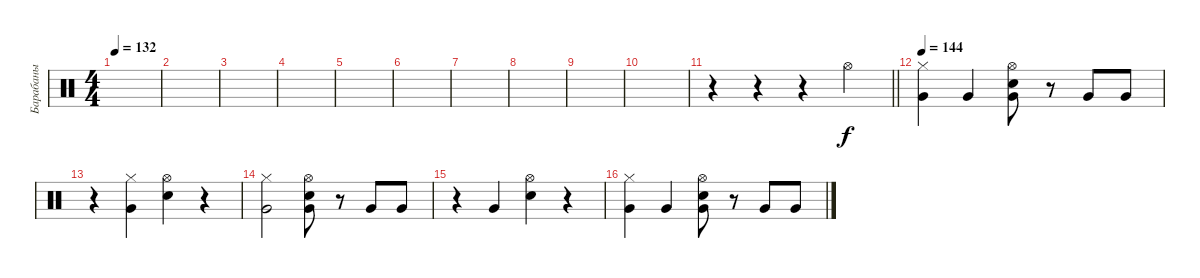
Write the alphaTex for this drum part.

\track ("Барабаны" "Барабаны") {instrument percussion}
\staff {score}
\articulation defaults
\ts (4 4)
\tempo 132
\clef neutral
\ks c
|
|
|
|
|
|
|
|
|
|
\barLineRight lightlight
r.4 r.4 r.4 "Hi-Hat (open)".4 |
\tempo 144
("Hi-Hat (closed)" "Very Low Tom (hit)").4{dy f} "Very Low Tom (hit)".4 ("Electric Snare (hit)" "Hi-Hat (open)" "Very Low Tom (hit)").8 r.8 "Very Low Tom (hit)".8 "Very Low Tom (hit)".8 |
r.4 ("Very Low Tom (hit)" "Hi-Hat (closed)").4 ("Snare (hit) 2" "Hi-Hat (open)").4 r.4 |
("Hi-Hat (closed)" "Very Low Tom (hit)").2 ("Electric Snare (hit)" "Hi-Hat (open)" "Very Low Tom (hit)").8 r.8 "Very Low Tom (hit)".8 "Very Low Tom (hit)".8 |
r.4 "Very Low Tom (hit)".4 ("Snare (hit) 2" "Hi-Hat (open)").4 r.4 |
("Hi-Hat (closed)" "Very Low Tom (hit)").4 "Very Low Tom (hit)".4 ("Electric Snare (hit)" "Hi-Hat (open)" "Very Low Tom (hit)").8 r.8 "Very Low Tom (hit)".8 "Very Low Tom (hit)".8
